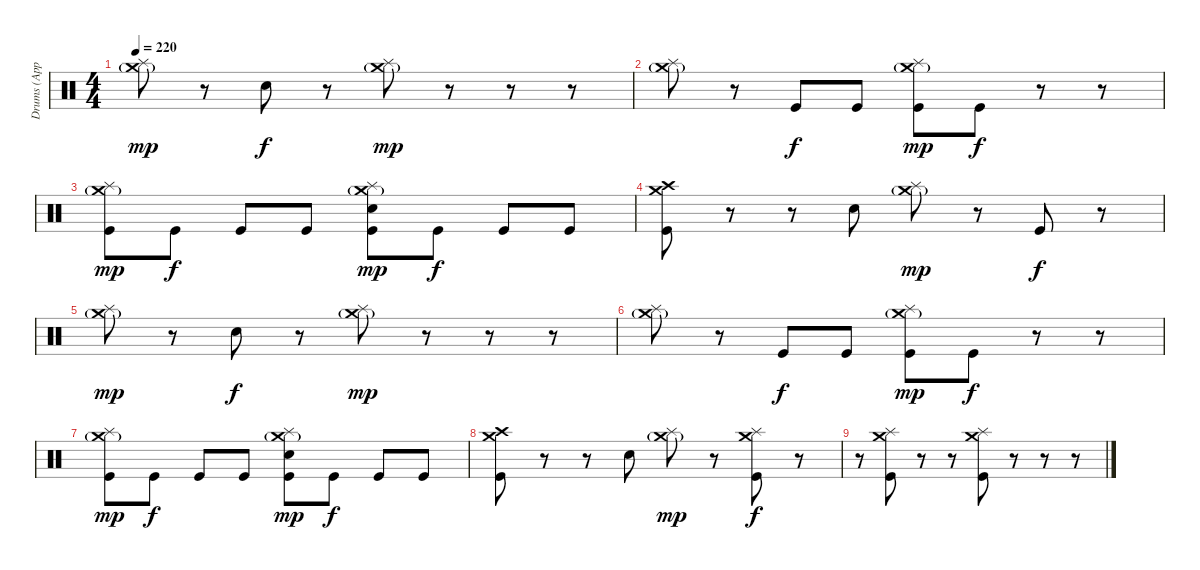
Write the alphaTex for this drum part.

\track ("Drums (Approx.)" "Drums (App") {instrument percussion}
\staff {score}
\articulation defaults
\ts (4 4)
\tempo 220
\clef neutral
\ks c
("Crash medium (hit)"{g} "Splash (hit)").8{dy mp} r.8 "Electric Snare (hit)".8{dy f} r.8 ("Crash medium (hit)"{g} "Splash (hit)").8{dy mp} r.8 r.8 r.8 |
("Crash medium (hit)"{g} "Splash (hit)").8 r.8 "Kick (hit)".8{dy f} "Kick (hit)".8 ("Crash medium (hit)"{g} "Splash (hit)" "Kick (hit)").8{dy mp} "Kick (hit)".8{dy f} r.8 r.8 |
("Crash medium (hit)"{g} "Splash (hit)" "Kick (hit)").8{dy mp} "Kick (hit)".8{dy f} "Kick (hit)".8 "Kick (hit)".8 ("Crash medium (hit)"{g} "Splash (hit)" "Electric Snare (hit)" "Kick (hit)").8{dy mp} "Kick (hit)".8{dy f} "Kick (hit)".8 "Kick (hit)".8 |
("Crash medium (hit)" "Crash high (hit)" "Kick (hit)").8 r.8 r.8 "Electric Snare (hit)".8 ("Crash medium (hit)"{g} "Splash (hit)").8{dy mp} r.8 "Kick (hit)".8{dy f} r.8 |
("Crash medium (hit)"{g} "Splash (hit)").8{dy mp} r.8 "Electric Snare (hit)".8{dy f} r.8 ("Crash medium (hit)"{g} "Splash (hit)").8{dy mp} r.8 r.8 r.8 |
("Crash medium (hit)"{g} "Splash (hit)").8 r.8 "Kick (hit)".8{dy f} "Kick (hit)".8 ("Crash medium (hit)"{g} "Splash (hit)" "Kick (hit)").8{dy mp} "Kick (hit)".8{dy f} r.8 r.8 |
("Crash medium (hit)"{g} "Splash (hit)" "Kick (hit)").8{dy mp} "Kick (hit)".8{dy f} "Kick (hit)".8 "Kick (hit)".8 ("Crash medium (hit)"{g} "Splash (hit)" "Electric Snare (hit)" "Kick (hit)").8{dy mp} "Kick (hit)".8{dy f} "Kick (hit)".8 "Kick (hit)".8 |
("Crash medium (hit)" "Crash high (hit)" "Kick (hit)").8 r.8 r.8 "Electric Snare (hit)".8 ("Crash medium (hit)"{g} "Splash (hit)").8{dy mp} r.8 ("Crash medium (hit)" "Splash (hit)" "Kick (hit)").8{dy f} r.8 |
r.8 ("Crash medium (hit)" "Splash (hit)" "Kick (hit)").8 r.8 r.8 ("Crash medium (hit)" "Splash (hit)" "Kick (hit)").8 r.8 r.8 r.8
